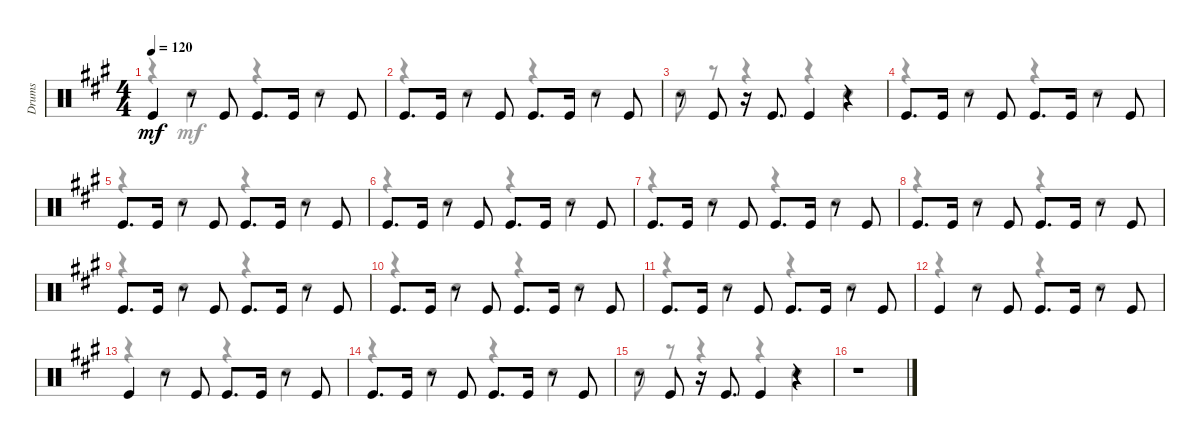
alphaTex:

\track ("Drums" "Drums") {instrument percussion}
\staff {score}
\articulation defaults
\voice
\ts (4 4)
\tempo 120
\clef neutral
\ks f#minor "Kick (hit)".4{dy mf}
r.8 "Kick (hit)".8 "Kick (hit)".8{d} "Kick (hit)".16 r.8 "Kick (hit)".8 |
"Kick (hit)".8{d} "Kick (hit)".16 r.8 "Kick (hit)".8 "Kick (hit)".8{d} "Kick (hit)".16 r.8 "Kick (hit)".8 |
r.8 "Kick (hit)".8 r.16 "Kick (hit)".8{d} "Kick (hit)".4 r.4 |
"Kick (hit)".8{d} "Kick (hit)".16 r.8 "Kick (hit)".8 "Kick (hit)".8{d} "Kick (hit)".16 r.8 "Kick (hit)".8 |
"Kick (hit)".8{d} "Kick (hit)".16 r.8 "Kick (hit)".8 "Kick (hit)".8{d} "Kick (hit)".16 r.8 "Kick (hit)".8 |
"Kick (hit)".8{d} "Kick (hit)".16 r.8 "Kick (hit)".8 "Kick (hit)".8{d} "Kick (hit)".16 r.8 "Kick (hit)".8 |
"Kick (hit)".8{d} "Kick (hit)".16 r.8 "Kick (hit)".8 "Kick (hit)".8{d} "Kick (hit)".16 r.8 "Kick (hit)".8 |
"Kick (hit)".8{d} "Kick (hit)".16 r.8 "Kick (hit)".8 "Kick (hit)".8{d} "Kick (hit)".16 r.8 "Kick (hit)".8 |
"Kick (hit)".8{d} "Kick (hit)".16 r.8 "Kick (hit)".8 "Kick (hit)".8{d} "Kick (hit)".16 r.8 "Kick (hit)".8 |
"Kick (hit)".8{d} "Kick (hit)".16 r.8 "Kick (hit)".8 "Kick (hit)".8{d} "Kick (hit)".16 r.8 "Kick (hit)".8 |
"Kick (hit)".8{d} "Kick (hit)".16 r.8 "Kick (hit)".8 "Kick (hit)".8{d} "Kick (hit)".16 r.8 "Kick (hit)".8 |
"Kick (hit)".4 r.8 "Kick (hit)".8 "Kick (hit)".8{d} "Kick (hit)".16 r.8 "Kick (hit)".8 |
"Kick (hit)".4 r.8 "Kick (hit)".8 "Kick (hit)".8{d} "Kick (hit)".16 r.8 "Kick (hit)".8 |
"Kick (hit)".8{d} "Kick (hit)".16 r.8 "Kick (hit)".8 "Kick (hit)".8{d} "Kick (hit)".16 r.8 "Kick (hit)".8 |
r.8 "Kick (hit)".8 r.16 "Kick (hit)".8{d} "Kick (hit)".4 r.4 |
r.1
\voice
\clef neutral
\ottava regular
\simile none
\ks f#minor
r.4{dy mf} "Snare (hit) 2".4 r.4 "Snare (hit) 2".4 |
r.4 "Snare (hit) 2".4 r.4 "Snare (hit) 2".4 |
"Snare (hit) 2".8 r.8 r.4 r.4 "Snare (hit) 2".4 |
r.4 "Snare (hit) 2".4 r.4 "Snare (hit) 2".4 |
r.4 "Snare (hit) 2".4 r.4 "Snare (hit) 2".4 |
r.4 "Snare (hit) 2".4 r.4 "Snare (hit) 2".4 |
r.4 "Snare (hit) 2".4 r.4 "Snare (hit) 2".4 |
r.4 "Snare (hit) 2".4 r.4 "Snare (hit) 2".4 |
r.4 "Snare (hit) 2".4 r.4 "Snare (hit) 2".4 |
r.4 "Snare (hit) 2".4 r.4 "Snare (hit) 2".4 |
r.4 "Snare (hit) 2".4 r.4 "Snare (hit) 2".4 |
r.4 "Snare (hit) 2".4 r.4 "Snare (hit) 2".4 |
r.4 "Snare (hit) 2".4 r.4 "Snare (hit) 2".4 |
r.4 "Snare (hit) 2".4 r.4 "Snare (hit) 2".4 |
"Snare (hit) 2".8 r.8 r.4 r.4 "Snare (hit) 2".4 |
